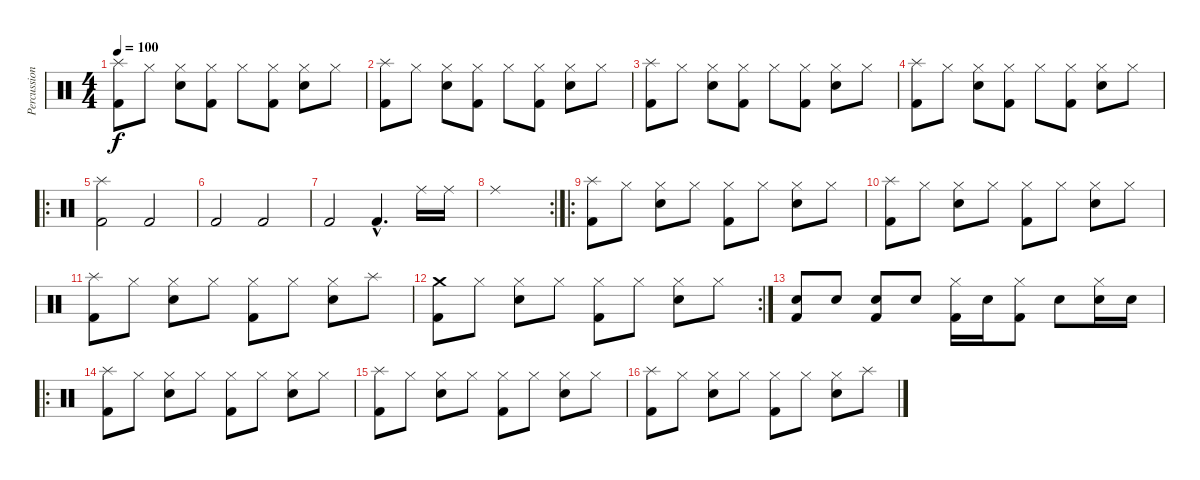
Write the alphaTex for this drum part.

\track ("Percussion" "Percussion") {instrument percussion}
\staff {score}
\articulation defaults
\ts (4 4)
\tempo 100
\clef neutral
\ks c
("Splash (hit)" "Kick (hit) 2").8{dy f} "Hi-Hat (closed)".8 ("Hi-Hat (closed)" "Snare (hit) 2").8 ("Hi-Hat (closed)" "Kick (hit) 2").8 "Hi-Hat (closed)".8 ("Hi-Hat (closed)" "Kick (hit) 2").8 ("Hi-Hat (closed)" "Snare (hit) 2").8 "Hi-Hat (closed)".8 |
("Splash (hit)" "Kick (hit) 2").8 "Hi-Hat (closed)".8 ("Hi-Hat (closed)" "Snare (hit) 2").8 ("Hi-Hat (closed)" "Kick (hit) 2").8 "Hi-Hat (closed)".8 ("Hi-Hat (closed)" "Kick (hit) 2").8 ("Hi-Hat (closed)" "Snare (hit) 2").8 "Hi-Hat (closed)".8 |
("Splash (hit)" "Kick (hit) 2").8 "Hi-Hat (closed)".8 ("Hi-Hat (closed)" "Snare (hit) 2").8 ("Hi-Hat (closed)" "Kick (hit) 2").8 "Hi-Hat (closed)".8 ("Hi-Hat (closed)" "Kick (hit) 2").8 ("Hi-Hat (closed)" "Snare (hit) 2").8 "Hi-Hat (closed)".8 |
("Splash (hit)" "Kick (hit) 2").8 "Hi-Hat (closed)".8 ("Hi-Hat (closed)" "Snare (hit) 2").8 ("Hi-Hat (closed)" "Kick (hit) 2").8 "Hi-Hat (closed)".8 ("Hi-Hat (closed)" "Kick (hit) 2").8 ("Hi-Hat (closed)" "Snare (hit) 2").8 "Hi-Hat (closed)".8 |
\ro
("Splash (hit)" "Kick (hit) 2").2 "Kick (hit) 2".2 |
"Kick (hit) 2".2 "Kick (hit) 2".2 |
"Kick (hit) 2".2 "Kick (hit) 2"{hac}.4{d} "Ride (middle)".16 "Ride (middle)".16 |
\rc 2 "Ride (middle)".1
|
\ro
("Splash (hit)" "Kick (hit) 2").8 "Hi-Hat (closed)".8 ("Hi-Hat (closed)" "Snare (hit) 2").8 "Hi-Hat (closed)".8 ("Hi-Hat (closed)" "Kick (hit) 2").8 "Hi-Hat (closed)".8 ("Hi-Hat (closed)" "Snare (hit) 2").8 "Hi-Hat (closed)".8 |
("Splash (hit)" "Kick (hit) 2").8 "Hi-Hat (closed)".8 ("Hi-Hat (closed)" "Snare (hit) 2").8 "Hi-Hat (closed)".8 ("Hi-Hat (closed)" "Kick (hit) 2").8 "Hi-Hat (closed)".8 ("Hi-Hat (closed)" "Snare (hit) 2").8 "Hi-Hat (closed)".8 |
("Splash (hit)" "Kick (hit) 2").8 "Hi-Hat (closed)".8 ("Hi-Hat (closed)" "Snare (hit) 2").8 "Hi-Hat (closed)".8 ("Hi-Hat (closed)" "Kick (hit) 2").8 "Hi-Hat (closed)".8 ("Hi-Hat (closed)" "Snare (hit) 2").8 "Splash (hit)".8 |
\rc 2
("Crash medium (hit)" "Kick (hit) 2").8 "Hi-Hat (closed)".8 ("Hi-Hat (closed)" "Snare (hit) 2").8 "Hi-Hat (closed)".8 ("Hi-Hat (closed)" "Kick (hit) 2").8 "Hi-Hat (closed)".8 ("Hi-Hat (closed)" "Snare (hit) 2").8 "Hi-Hat (closed)".8 |
("Snare (hit) 2" "Kick (hit) 2").8 "Snare (hit) 2".8 ("Snare (hit) 2" "Kick (hit) 2").8 "Snare (hit) 2".8 ("Hi-Hat (closed)" "Kick (hit) 2").16 "Snare (hit) 2".16 ("Hi-Hat (closed)" "Kick (hit) 2").8 "Snare (hit) 2".8 ("Hi-Hat (closed)" "Snare (hit) 2").16 "Snare (hit) 2".16 |
\ro
("Splash (hit)" "Kick (hit) 2").8 "Hi-Hat (closed)".8 ("Hi-Hat (closed)" "Snare (hit) 2").8 "Hi-Hat (closed)".8 ("Hi-Hat (closed)" "Kick (hit) 2").8 "Hi-Hat (closed)".8 ("Hi-Hat (closed)" "Snare (hit) 2").8 "Hi-Hat (closed)".8 |
("Splash (hit)" "Kick (hit) 2").8 "Hi-Hat (closed)".8 ("Hi-Hat (closed)" "Snare (hit) 2").8 "Hi-Hat (closed)".8 ("Hi-Hat (closed)" "Kick (hit) 2").8 "Hi-Hat (closed)".8 ("Hi-Hat (closed)" "Snare (hit) 2").8 "Hi-Hat (closed)".8 |
("Splash (hit)" "Kick (hit) 2").8 "Hi-Hat (closed)".8 ("Hi-Hat (closed)" "Snare (hit) 2").8 "Hi-Hat (closed)".8 ("Hi-Hat (closed)" "Kick (hit) 2").8 "Hi-Hat (closed)".8 ("Hi-Hat (closed)" "Snare (hit) 2").8 "Splash (hit)".8
